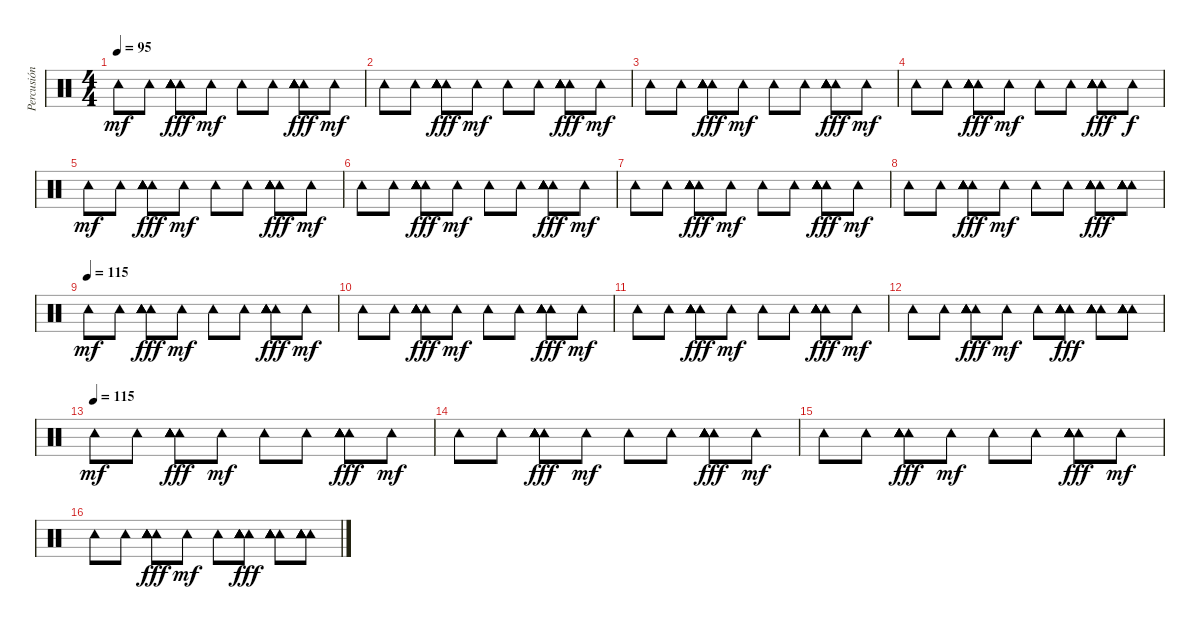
\track ("Percusión " "Percusión ") {instrument percussion}
\staff {score}
\articulation defaults
\ts (4 4)
\tempo 95
\clef neutral
\ks c "Tambourine (hit)".8{dy mf} "Tambourine (hit)".8
("Tambourine (hit)" "Tambourine (hit)" "Tambourine (hit)" "Tambourine (hit)" "Tambourine (hit)" "Tambourine (hit)").8{dy fff} "Tambourine (hit)".8{dy mf} "Tambourine (hit)".8 "Tambourine (hit)".8 ("Tambourine (hit)" "Tambourine (hit)" "Tambourine (hit)" "Tambourine (hit)" "Tambourine (hit)" "Tambourine (hit)").8{dy fff} "Tambourine (hit)".8{dy mf} |
"Tambourine (hit)".8 "Tambourine (hit)".8 ("Tambourine (hit)" "Tambourine (hit)" "Tambourine (hit)" "Tambourine (hit)" "Tambourine (hit)" "Tambourine (hit)").8{dy fff} "Tambourine (hit)".8{dy mf} "Tambourine (hit)".8 "Tambourine (hit)".8 ("Tambourine (hit)" "Tambourine (hit)" "Tambourine (hit)" "Tambourine (hit)" "Tambourine (hit)" "Tambourine (hit)").8{dy fff} "Tambourine (hit)".8{dy mf} |
"Tambourine (hit)".8 "Tambourine (hit)".8 ("Tambourine (hit)" "Tambourine (hit)" "Tambourine (hit)" "Tambourine (hit)" "Tambourine (hit)" "Tambourine (hit)").8{dy fff} "Tambourine (hit)".8{dy mf} "Tambourine (hit)".8 "Tambourine (hit)".8 ("Tambourine (hit)" "Tambourine (hit)" "Tambourine (hit)" "Tambourine (hit)" "Tambourine (hit)" "Tambourine (hit)").8{dy fff} "Tambourine (hit)".8{dy mf} |
"Tambourine (hit)".8 "Tambourine (hit)".8 ("Tambourine (hit)" "Tambourine (hit)" "Tambourine (hit)" "Tambourine (hit)" "Tambourine (hit)" "Tambourine (hit)").8{dy fff} "Tambourine (hit)".8{dy mf} "Tambourine (hit)".8 "Tambourine (hit)".8 ("Tambourine (hit)" "Tambourine (hit)" "Tambourine (hit)" "Tambourine (hit)" "Tambourine (hit)" "Tambourine (hit)").8{dy fff} "Tambourine (hit)".8{dy f} |
"Tambourine (hit)".8{dy mf} "Tambourine (hit)".8 ("Tambourine (hit)" "Tambourine (hit)" "Tambourine (hit)" "Tambourine (hit)" "Tambourine (hit)" "Tambourine (hit)").8{dy fff} "Tambourine (hit)".8{dy mf} "Tambourine (hit)".8 "Tambourine (hit)".8 ("Tambourine (hit)" "Tambourine (hit)" "Tambourine (hit)" "Tambourine (hit)" "Tambourine (hit)" "Tambourine (hit)").8{dy fff} "Tambourine (hit)".8{dy mf} |
"Tambourine (hit)".8 "Tambourine (hit)".8 ("Tambourine (hit)" "Tambourine (hit)" "Tambourine (hit)" "Tambourine (hit)" "Tambourine (hit)" "Tambourine (hit)").8{dy fff} "Tambourine (hit)".8{dy mf} "Tambourine (hit)".8 "Tambourine (hit)".8 ("Tambourine (hit)" "Tambourine (hit)" "Tambourine (hit)" "Tambourine (hit)" "Tambourine (hit)" "Tambourine (hit)").8{dy fff} "Tambourine (hit)".8{dy mf} |
"Tambourine (hit)".8 "Tambourine (hit)".8 ("Tambourine (hit)" "Tambourine (hit)" "Tambourine (hit)" "Tambourine (hit)" "Tambourine (hit)" "Tambourine (hit)").8{dy fff} "Tambourine (hit)".8{dy mf} "Tambourine (hit)".8 "Tambourine (hit)".8 ("Tambourine (hit)" "Tambourine (hit)" "Tambourine (hit)" "Tambourine (hit)" "Tambourine (hit)" "Tambourine (hit)").8{dy fff} "Tambourine (hit)".8{dy mf} |
"Tambourine (hit)".8 "Tambourine (hit)".8 ("Tambourine (hit)" "Tambourine (hit)" "Tambourine (hit)" "Tambourine (hit)" "Tambourine (hit)" "Tambourine (hit)").8{dy fff} "Tambourine (hit)".8{dy mf} "Tambourine (hit)".8 "Tambourine (hit)".8 ("Tambourine (hit)" "Tambourine (hit)" "Tambourine (hit)" "Tambourine (hit)" "Tambourine (hit)" "Tambourine (hit)").8{dy fff} ("Tambourine (hit)" "Tambourine (hit)" "Tambourine (hit)" "Tambourine (hit)" "Tambourine (hit)" "Tambourine (hit)").8 |
\tempo (115)
"Tambourine (hit)".8{dy mf} "Tambourine (hit)".8 ("Tambourine (hit)" "Tambourine (hit)" "Tambourine (hit)" "Tambourine (hit)" "Tambourine (hit)" "Tambourine (hit)").8{dy fff} "Tambourine (hit)".8{dy mf} "Tambourine (hit)".8 "Tambourine (hit)".8 ("Tambourine (hit)" "Tambourine (hit)" "Tambourine (hit)" "Tambourine (hit)" "Tambourine (hit)" "Tambourine (hit)").8{dy fff} "Tambourine (hit)".8{dy mf} |
"Tambourine (hit)".8 "Tambourine (hit)".8 ("Tambourine (hit)" "Tambourine (hit)" "Tambourine (hit)" "Tambourine (hit)" "Tambourine (hit)" "Tambourine (hit)").8{dy fff} "Tambourine (hit)".8{dy mf} "Tambourine (hit)".8 "Tambourine (hit)".8 ("Tambourine (hit)" "Tambourine (hit)" "Tambourine (hit)" "Tambourine (hit)" "Tambourine (hit)" "Tambourine (hit)").8{dy fff} "Tambourine (hit)".8{dy mf} |
"Tambourine (hit)".8 "Tambourine (hit)".8 ("Tambourine (hit)" "Tambourine (hit)" "Tambourine (hit)" "Tambourine (hit)" "Tambourine (hit)" "Tambourine (hit)").8{dy fff} "Tambourine (hit)".8{dy mf} "Tambourine (hit)".8 "Tambourine (hit)".8 ("Tambourine (hit)" "Tambourine (hit)" "Tambourine (hit)" "Tambourine (hit)" "Tambourine (hit)" "Tambourine (hit)").8{dy fff} "Tambourine (hit)".8{dy mf} |
"Tambourine (hit)".8 "Tambourine (hit)".8 ("Tambourine (hit)" "Tambourine (hit)" "Tambourine (hit)" "Tambourine (hit)" "Tambourine (hit)" "Tambourine (hit)").8{dy fff} "Tambourine (hit)".8{dy mf} "Tambourine (hit)".8 ("Tambourine (hit)" "Tambourine (hit)" "Tambourine (hit)" "Tambourine (hit)" "Tambourine (hit)" "Tambourine (hit)").8{dy fff} ("Tambourine (hit)" "Tambourine (hit)" "Tambourine (hit)" "Tambourine (hit)" "Tambourine (hit)" "Tambourine (hit)").8 ("Tambourine (hit)" "Tambourine (hit)" "Tambourine (hit)" "Tambourine (hit)" "Tambourine (hit)" "Tambourine (hit)").8 |
\tempo (115)
"Tambourine (hit)".8{dy mf} "Tambourine (hit)".8 ("Tambourine (hit)" "Tambourine (hit)" "Tambourine (hit)" "Tambourine (hit)" "Tambourine (hit)" "Tambourine (hit)").8{dy fff} "Tambourine (hit)".8{dy mf} "Tambourine (hit)".8 "Tambourine (hit)".8 ("Tambourine (hit)" "Tambourine (hit)" "Tambourine (hit)" "Tambourine (hit)" "Tambourine (hit)" "Tambourine (hit)").8{dy fff} "Tambourine (hit)".8{dy mf} |
"Tambourine (hit)".8 "Tambourine (hit)".8 ("Tambourine (hit)" "Tambourine (hit)" "Tambourine (hit)" "Tambourine (hit)" "Tambourine (hit)" "Tambourine (hit)").8{dy fff} "Tambourine (hit)".8{dy mf} "Tambourine (hit)".8 "Tambourine (hit)".8 ("Tambourine (hit)" "Tambourine (hit)" "Tambourine (hit)" "Tambourine (hit)" "Tambourine (hit)" "Tambourine (hit)").8{dy fff} "Tambourine (hit)".8{dy mf} |
"Tambourine (hit)".8 "Tambourine (hit)".8 ("Tambourine (hit)" "Tambourine (hit)" "Tambourine (hit)" "Tambourine (hit)" "Tambourine (hit)" "Tambourine (hit)").8{dy fff} "Tambourine (hit)".8{dy mf} "Tambourine (hit)".8 "Tambourine (hit)".8 ("Tambourine (hit)" "Tambourine (hit)" "Tambourine (hit)" "Tambourine (hit)" "Tambourine (hit)" "Tambourine (hit)").8{dy fff} "Tambourine (hit)".8{dy mf} |
"Tambourine (hit)".8 "Tambourine (hit)".8 ("Tambourine (hit)" "Tambourine (hit)" "Tambourine (hit)" "Tambourine (hit)" "Tambourine (hit)" "Tambourine (hit)").8{dy fff} "Tambourine (hit)".8{dy mf} "Tambourine (hit)".8 ("Tambourine (hit)" "Tambourine (hit)" "Tambourine (hit)" "Tambourine (hit)" "Tambourine (hit)" "Tambourine (hit)").8{dy fff} ("Tambourine (hit)" "Tambourine (hit)" "Tambourine (hit)" "Tambourine (hit)" "Tambourine (hit)" "Tambourine (hit)").8 ("Tambourine (hit)" "Tambourine (hit)" "Tambourine (hit)" "Tambourine (hit)" "Tambourine (hit)" "Tambourine (hit)").8
